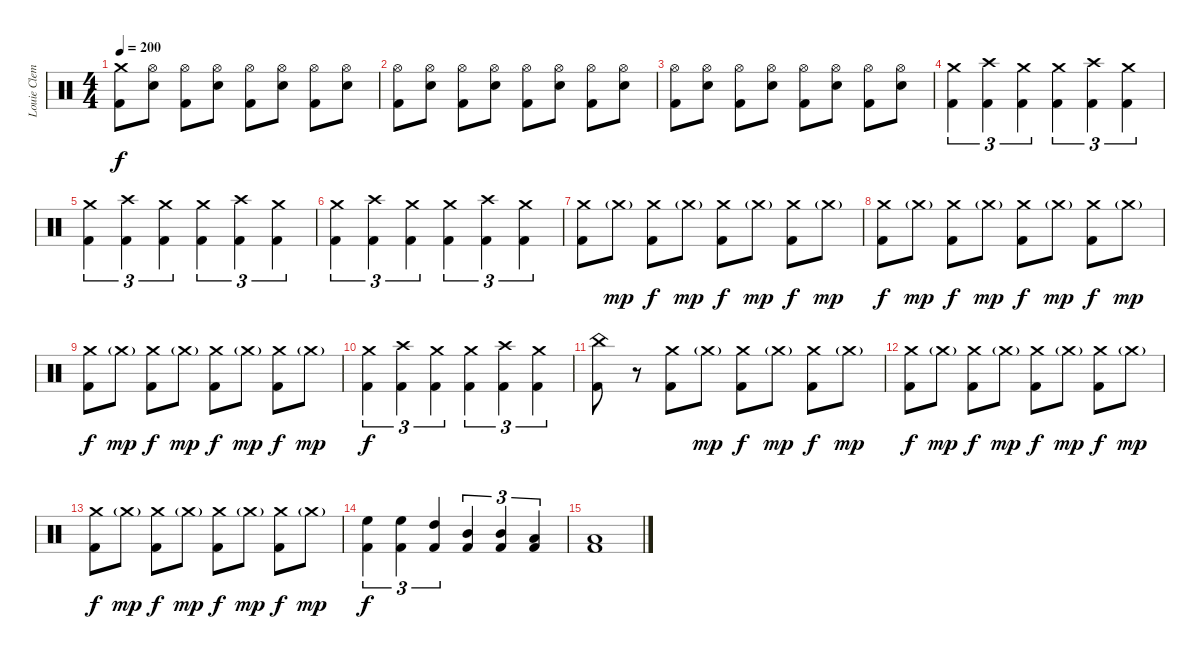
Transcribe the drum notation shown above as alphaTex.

\track ("Louie Clemente" "Louie Clem") {instrument percussion}
\staff {score}
\articulation defaults
\ts (4 4)
\tempo 200
\clef neutral
\ks c
("Crash medium (hit)" "Kick (hit) 2").8{dy f} ("Hi-Hat (open)" "Snare (hit) 2").8 ("Hi-Hat (open)" "Kick (hit) 2").8 ("Hi-Hat (open)" "Snare (hit) 2").8 ("Hi-Hat (open)" "Kick (hit) 2").8 ("Hi-Hat (open)" "Snare (hit) 2").8 ("Hi-Hat (open)" "Kick (hit) 2").8 ("Hi-Hat (open)" "Snare (hit) 2").8 |
("Hi-Hat (open)" "Kick (hit) 2").8 ("Hi-Hat (open)" "Snare (hit) 2").8 ("Hi-Hat (open)" "Kick (hit) 2").8 ("Hi-Hat (open)" "Snare (hit) 2").8 ("Hi-Hat (open)" "Kick (hit) 2").8 ("Hi-Hat (open)" "Snare (hit) 2").8 ("Hi-Hat (open)" "Kick (hit) 2").8 ("Hi-Hat (open)" "Snare (hit) 2").8 |
("Hi-Hat (open)" "Kick (hit) 2").8 ("Hi-Hat (open)" "Snare (hit) 2").8 ("Hi-Hat (open)" "Kick (hit) 2").8 ("Hi-Hat (open)" "Snare (hit) 2").8 ("Hi-Hat (open)" "Kick (hit) 2").8 ("Hi-Hat (open)" "Snare (hit) 2").8 ("Hi-Hat (open)" "Kick (hit) 2").8 ("Hi-Hat (open)" "Snare (hit) 2").8 |
("Crash medium (hit)" "Kick (hit) 2").4{tu (3 2)} ("Crash high (hit)" "Kick (hit) 2").4{tu (3 2)} ("Crash medium (hit)" "Kick (hit) 2").4{tu (3 2)} ("Crash medium (hit)" "Kick (hit) 2").4{tu (3 2)} ("Crash high (hit)" "Kick (hit) 2").4{tu (3 2)} ("Crash medium (hit)" "Kick (hit) 2").4{tu (3 2)} |
("Crash medium (hit)" "Kick (hit) 2").4{tu (3 2)} ("Crash high (hit)" "Kick (hit) 2").4{tu (3 2)} ("Crash medium (hit)" "Kick (hit) 2").4{tu (3 2)} ("Crash medium (hit)" "Kick (hit) 2").4{tu (3 2)} ("Crash high (hit)" "Kick (hit) 2").4{tu (3 2)} ("Crash medium (hit)" "Kick (hit) 2").4{tu (3 2)} |
("Crash medium (hit)" "Kick (hit) 2").4{tu (3 2)} ("Crash high (hit)" "Kick (hit) 2").4{tu (3 2)} ("Crash medium (hit)" "Kick (hit) 2").4{tu (3 2)} ("Crash medium (hit)" "Kick (hit) 2").4{tu (3 2)} ("Crash high (hit)" "Kick (hit) 2").4{tu (3 2)} ("Crash medium (hit)" "Kick (hit) 2").4{tu (3 2)} |
("Crash medium (hit)" "Kick (hit) 2").8 "Crash medium (hit)"{g}.8{dy mp} ("Crash medium (hit)" "Kick (hit) 2").8{dy f} "Crash medium (hit)"{g}.8{dy mp} ("Crash medium (hit)" "Kick (hit) 2").8{dy f} "Crash medium (hit)"{g}.8{dy mp} ("Crash medium (hit)" "Kick (hit) 2").8{dy f} "Crash medium (hit)"{g}.8{dy mp} |
("Crash medium (hit)" "Kick (hit) 2").8{dy f} "Crash medium (hit)"{g}.8{dy mp} ("Crash medium (hit)" "Kick (hit) 2").8{dy f} "Crash medium (hit)"{g}.8{dy mp} ("Crash medium (hit)" "Kick (hit) 2").8{dy f} "Crash medium (hit)"{g}.8{dy mp} ("Crash medium (hit)" "Kick (hit) 2").8{dy f} "Crash medium (hit)"{g}.8{dy mp} |
("Crash medium (hit)" "Kick (hit) 2").8{dy f} "Crash medium (hit)"{g}.8{dy mp} ("Crash medium (hit)" "Kick (hit) 2").8{dy f} "Crash medium (hit)"{g}.8{dy mp} ("Crash medium (hit)" "Kick (hit) 2").8{dy f} "Crash medium (hit)"{g}.8{dy mp} ("Crash medium (hit)" "Kick (hit) 2").8{dy f} "Crash medium (hit)"{g}.8{dy mp} |
("Crash medium (hit)" "Kick (hit) 2").4{tu (3 2) dy f} ("Crash high (hit)" "Kick (hit) 2").4{tu (3 2)} ("Crash medium (hit)" "Kick (hit) 2").4{tu (3 2)} ("Crash medium (hit)" "Kick (hit) 2").4{tu (3 2)} ("Crash high (hit)" "Kick (hit) 2").4{tu (3 2)} ("Crash medium (hit)" "Kick (hit) 2").4{tu (3 2)} |
("China (hit)" "Kick (hit) 2").8 r.8 ("Crash medium (hit)" "Kick (hit) 2").8 "Crash medium (hit)"{g}.8{dy mp} ("Crash medium (hit)" "Kick (hit) 2").8{dy f} "Crash medium (hit)"{g}.8{dy mp} ("Crash medium (hit)" "Kick (hit) 2").8{dy f} "Crash medium (hit)"{g}.8{dy mp} |
("Crash medium (hit)" "Kick (hit) 2").8{dy f} "Crash medium (hit)"{g}.8{dy mp} ("Crash medium (hit)" "Kick (hit) 2").8{dy f} "Crash medium (hit)"{g}.8{dy mp} ("Crash medium (hit)" "Kick (hit) 2").8{dy f} "Crash medium (hit)"{g}.8{dy mp} ("Crash medium (hit)" "Kick (hit) 2").8{dy f} "Crash medium (hit)"{g}.8{dy mp} |
("Crash medium (hit)" "Kick (hit) 2").8{dy f} "Crash medium (hit)"{g}.8{dy mp} ("Crash medium (hit)" "Kick (hit) 2").8{dy f} "Crash medium (hit)"{g}.8{dy mp} ("Crash medium (hit)" "Kick (hit) 2").8{dy f} "Crash medium (hit)"{g}.8{dy mp} ("Crash medium (hit)" "Kick (hit) 2").8{dy f} "Crash medium (hit)"{g}.8{dy mp} |
("High Floor Tom (hit)" "Kick (hit) 2").4{tu (3 2) dy f} ("High Floor Tom (hit)" "Kick (hit) 2").4{tu (3 2)} ("High Tom (hit)" "Kick (hit) 2").4{tu (3 2)} ("Mid Tom (hit)" "Kick (hit) 2").4{tu (3 2)} ("Mid Tom (hit)" "Kick (hit) 2").4{tu (3 2)} ("Low Tom (hit)" "Kick (hit) 2").4{tu (3 2)} |
("Low Tom (hit)" "Kick (hit) 2").1
